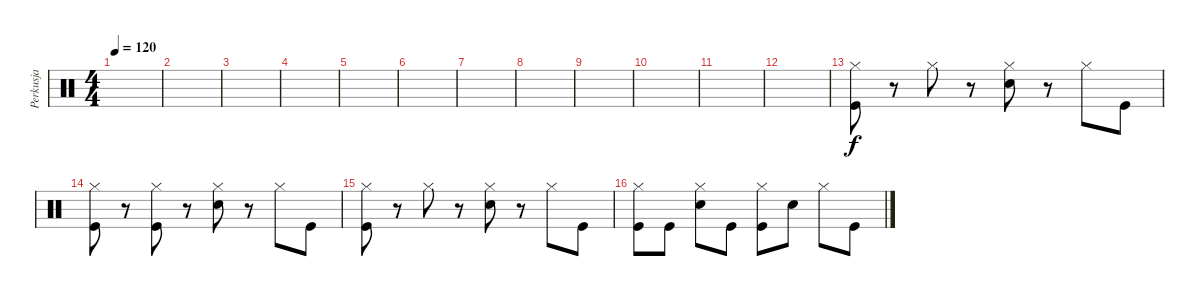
\track ("Perkusja" "Perkusja") {instrument percussion}
\staff {score}
\articulation defaults
\ts (4 4)
\tempo 120
\clef neutral
\ks c
|
|
|
|
|
|
|
|
|
|
|
|
("Hi-Hat (closed)" "Kick (hit)").8 r.8 "Hi-Hat (closed)".8 r.8 ("Hi-Hat (closed)" "Electric Snare (hit)").8 r.8 "Hi-Hat (closed)".8 "Kick (hit)".8 |
("Hi-Hat (closed)" "Kick (hit)").8 r.8 ("Hi-Hat (closed)" "Kick (hit)").8 r.8 ("Hi-Hat (closed)" "Electric Snare (hit)").8 r.8 "Hi-Hat (closed)".8 "Kick (hit)".8 |
("Hi-Hat (closed)" "Kick (hit)").8 r.8 "Hi-Hat (closed)".8 r.8 ("Hi-Hat (closed)" "Electric Snare (hit)").8 r.8 "Hi-Hat (closed)".8 "Kick (hit)".8 |
("Hi-Hat (closed)" "Kick (hit)").8 "Kick (hit)".8 ("Hi-Hat (closed)" "Electric Snare (hit)").8 "Kick (hit)".8 ("Hi-Hat (closed)" "Kick (hit)").8 "Electric Snare (hit)".8 "Hi-Hat (closed)".8 "Kick (hit)".8
